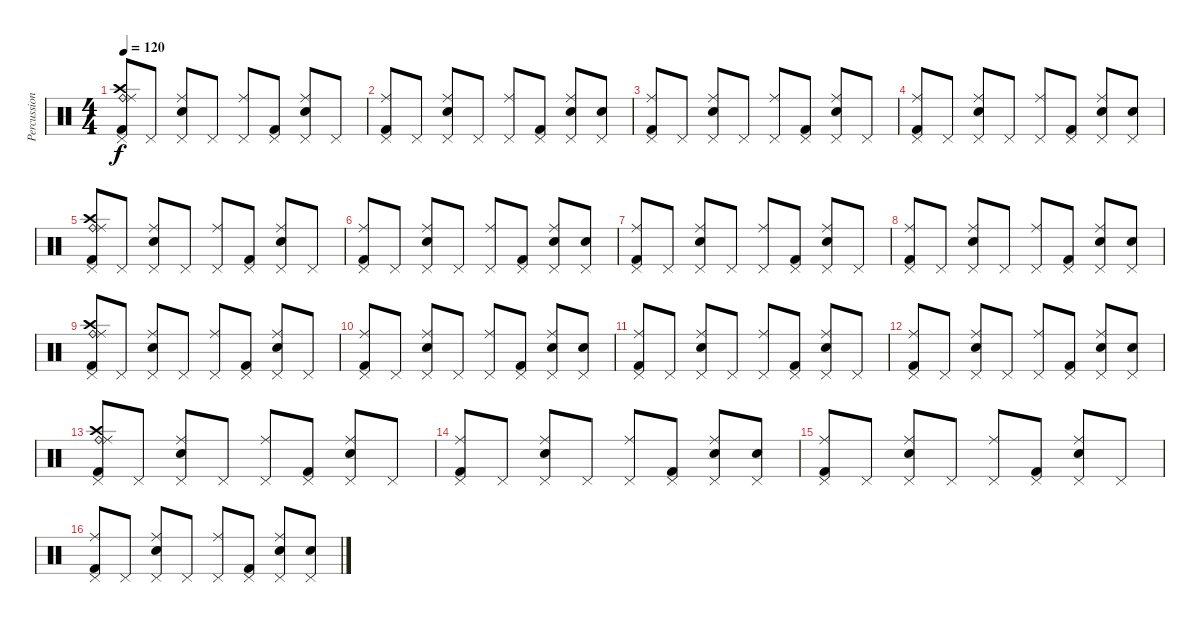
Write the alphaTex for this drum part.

\track ("Percussion" "Percussion") {instrument percussion}
\staff {score}
\articulation defaults
\ts (4 4)
\tempo 120
\clef neutral
\ks c
("Pedal Hi-Hat (hit)" "Kick (hit) 2" "Crash high (hit)" "Ride (bell)" "Ride (middle)").8{dy f} "Pedal Hi-Hat (hit)".8 ("Pedal Hi-Hat (hit)" "Electric Snare (hit)" "Ride (middle)").8 "Pedal Hi-Hat (hit)".8 ("Pedal Hi-Hat (hit)" "Ride (middle)").8 ("Pedal Hi-Hat (hit)" "Kick (hit) 2").8 ("Pedal Hi-Hat (hit)" "Electric Snare (hit)" "Ride (middle)").8 "Pedal Hi-Hat (hit)".8 |
("Pedal Hi-Hat (hit)" "Kick (hit) 2" "Ride (middle)").8 "Pedal Hi-Hat (hit)".8 ("Pedal Hi-Hat (hit)" "Electric Snare (hit)" "Ride (middle)").8 "Pedal Hi-Hat (hit)".8 ("Pedal Hi-Hat (hit)" "Ride (middle)").8 ("Pedal Hi-Hat (hit)" "Kick (hit) 2").8 ("Pedal Hi-Hat (hit)" "Electric Snare (hit)" "Ride (middle)").8 ("Pedal Hi-Hat (hit)" "Electric Snare (hit)").8 |
("Pedal Hi-Hat (hit)" "Kick (hit) 2" "Ride (middle)").8 "Pedal Hi-Hat (hit)".8 ("Pedal Hi-Hat (hit)" "Electric Snare (hit)" "Ride (middle)").8 "Pedal Hi-Hat (hit)".8 ("Pedal Hi-Hat (hit)" "Ride (middle)").8 ("Pedal Hi-Hat (hit)" "Kick (hit) 2").8 ("Pedal Hi-Hat (hit)" "Electric Snare (hit)" "Ride (middle)").8 "Pedal Hi-Hat (hit)".8 |
("Pedal Hi-Hat (hit)" "Kick (hit) 2" "Ride (middle)").8 "Pedal Hi-Hat (hit)".8 ("Pedal Hi-Hat (hit)" "Electric Snare (hit)" "Ride (middle)").8 "Pedal Hi-Hat (hit)".8 ("Pedal Hi-Hat (hit)" "Ride (middle)").8 ("Pedal Hi-Hat (hit)" "Kick (hit) 2").8 ("Pedal Hi-Hat (hit)" "Electric Snare (hit)" "Ride (middle)").8 ("Pedal Hi-Hat (hit)" "Electric Snare (hit)").8 |
("Pedal Hi-Hat (hit)" "Kick (hit) 2" "Crash high (hit)" "Ride (bell)" "Ride (middle)").8 "Pedal Hi-Hat (hit)".8 ("Pedal Hi-Hat (hit)" "Electric Snare (hit)" "Ride (middle)").8 "Pedal Hi-Hat (hit)".8 ("Pedal Hi-Hat (hit)" "Ride (middle)").8 ("Pedal Hi-Hat (hit)" "Kick (hit) 2").8 ("Pedal Hi-Hat (hit)" "Electric Snare (hit)" "Ride (middle)").8 "Pedal Hi-Hat (hit)".8 |
("Pedal Hi-Hat (hit)" "Kick (hit) 2" "Ride (middle)").8 "Pedal Hi-Hat (hit)".8 ("Pedal Hi-Hat (hit)" "Electric Snare (hit)" "Ride (middle)").8 "Pedal Hi-Hat (hit)".8 ("Pedal Hi-Hat (hit)" "Ride (middle)").8 ("Pedal Hi-Hat (hit)" "Kick (hit) 2").8 ("Pedal Hi-Hat (hit)" "Electric Snare (hit)" "Ride (middle)").8 ("Pedal Hi-Hat (hit)" "Electric Snare (hit)").8 |
("Pedal Hi-Hat (hit)" "Kick (hit) 2" "Ride (middle)").8 "Pedal Hi-Hat (hit)".8 ("Pedal Hi-Hat (hit)" "Electric Snare (hit)" "Ride (middle)").8 "Pedal Hi-Hat (hit)".8 ("Pedal Hi-Hat (hit)" "Ride (middle)").8 ("Pedal Hi-Hat (hit)" "Kick (hit) 2").8 ("Pedal Hi-Hat (hit)" "Electric Snare (hit)" "Ride (middle)").8 "Pedal Hi-Hat (hit)".8 |
("Pedal Hi-Hat (hit)" "Kick (hit) 2" "Ride (middle)").8 "Pedal Hi-Hat (hit)".8 ("Pedal Hi-Hat (hit)" "Electric Snare (hit)" "Ride (middle)").8 "Pedal Hi-Hat (hit)".8 ("Pedal Hi-Hat (hit)" "Ride (middle)").8 ("Pedal Hi-Hat (hit)" "Kick (hit) 2").8 ("Pedal Hi-Hat (hit)" "Electric Snare (hit)" "Ride (middle)").8 ("Pedal Hi-Hat (hit)" "Electric Snare (hit)").8 |
("Pedal Hi-Hat (hit)" "Kick (hit) 2" "Crash high (hit)" "Ride (bell)" "Ride (middle)").8 "Pedal Hi-Hat (hit)".8 ("Pedal Hi-Hat (hit)" "Electric Snare (hit)" "Ride (middle)").8 "Pedal Hi-Hat (hit)".8 ("Pedal Hi-Hat (hit)" "Ride (middle)").8 ("Pedal Hi-Hat (hit)" "Kick (hit) 2").8 ("Pedal Hi-Hat (hit)" "Electric Snare (hit)" "Ride (middle)").8 "Pedal Hi-Hat (hit)".8 |
("Pedal Hi-Hat (hit)" "Kick (hit) 2" "Ride (middle)").8 "Pedal Hi-Hat (hit)".8 ("Pedal Hi-Hat (hit)" "Electric Snare (hit)" "Ride (middle)").8 "Pedal Hi-Hat (hit)".8 ("Pedal Hi-Hat (hit)" "Ride (middle)").8 ("Pedal Hi-Hat (hit)" "Kick (hit) 2").8 ("Pedal Hi-Hat (hit)" "Electric Snare (hit)" "Ride (middle)").8 ("Pedal Hi-Hat (hit)" "Electric Snare (hit)").8 |
("Pedal Hi-Hat (hit)" "Kick (hit) 2" "Ride (middle)").8 "Pedal Hi-Hat (hit)".8 ("Pedal Hi-Hat (hit)" "Electric Snare (hit)" "Ride (middle)").8 "Pedal Hi-Hat (hit)".8 ("Pedal Hi-Hat (hit)" "Ride (middle)").8 ("Pedal Hi-Hat (hit)" "Kick (hit) 2").8 ("Pedal Hi-Hat (hit)" "Electric Snare (hit)" "Ride (middle)").8 "Pedal Hi-Hat (hit)".8 |
("Pedal Hi-Hat (hit)" "Kick (hit) 2" "Ride (middle)").8 "Pedal Hi-Hat (hit)".8 ("Pedal Hi-Hat (hit)" "Electric Snare (hit)" "Ride (middle)").8 "Pedal Hi-Hat (hit)".8 ("Pedal Hi-Hat (hit)" "Ride (middle)").8 ("Pedal Hi-Hat (hit)" "Kick (hit) 2").8 ("Pedal Hi-Hat (hit)" "Electric Snare (hit)" "Ride (middle)").8 ("Pedal Hi-Hat (hit)" "Electric Snare (hit)").8 |
("Pedal Hi-Hat (hit)" "Kick (hit) 2" "Crash high (hit)" "Ride (bell)" "Ride (middle)").8 "Pedal Hi-Hat (hit)".8 ("Pedal Hi-Hat (hit)" "Electric Snare (hit)" "Ride (middle)").8 "Pedal Hi-Hat (hit)".8 ("Pedal Hi-Hat (hit)" "Ride (middle)").8 ("Pedal Hi-Hat (hit)" "Kick (hit) 2").8 ("Pedal Hi-Hat (hit)" "Electric Snare (hit)" "Ride (middle)").8 "Pedal Hi-Hat (hit)".8 |
("Pedal Hi-Hat (hit)" "Kick (hit) 2" "Ride (middle)").8 "Pedal Hi-Hat (hit)".8 ("Pedal Hi-Hat (hit)" "Electric Snare (hit)" "Ride (middle)").8 "Pedal Hi-Hat (hit)".8 ("Pedal Hi-Hat (hit)" "Ride (middle)").8 ("Pedal Hi-Hat (hit)" "Kick (hit) 2").8 ("Pedal Hi-Hat (hit)" "Electric Snare (hit)" "Ride (middle)").8 ("Pedal Hi-Hat (hit)" "Electric Snare (hit)").8 |
("Pedal Hi-Hat (hit)" "Kick (hit) 2" "Ride (middle)").8 "Pedal Hi-Hat (hit)".8 ("Pedal Hi-Hat (hit)" "Electric Snare (hit)" "Ride (middle)").8 "Pedal Hi-Hat (hit)".8 ("Pedal Hi-Hat (hit)" "Ride (middle)").8 ("Pedal Hi-Hat (hit)" "Kick (hit) 2").8 ("Pedal Hi-Hat (hit)" "Electric Snare (hit)" "Ride (middle)").8 "Pedal Hi-Hat (hit)".8 |
("Pedal Hi-Hat (hit)" "Kick (hit) 2" "Ride (middle)").8 "Pedal Hi-Hat (hit)".8 ("Pedal Hi-Hat (hit)" "Electric Snare (hit)" "Ride (middle)").8 "Pedal Hi-Hat (hit)".8 ("Pedal Hi-Hat (hit)" "Ride (middle)").8 ("Pedal Hi-Hat (hit)" "Kick (hit) 2").8 ("Pedal Hi-Hat (hit)" "Electric Snare (hit)" "Ride (middle)").8 ("Pedal Hi-Hat (hit)" "Electric Snare (hit)").8
